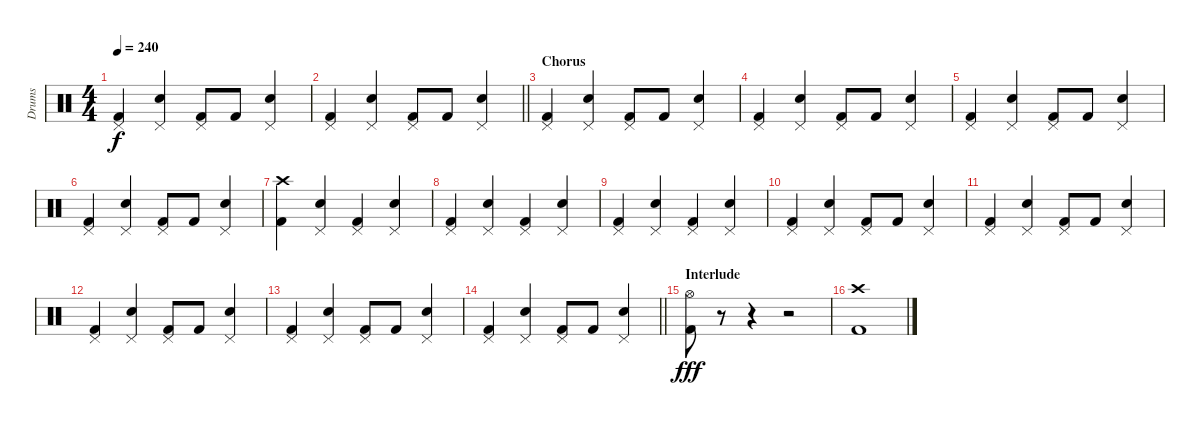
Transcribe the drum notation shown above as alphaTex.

\track ("Drums" "Drums") {instrument percussion}
\staff {score}
\articulation defaults
\ts (4 4)
\tempo 240
\clef neutral
\ks c
("Pedal Hi-Hat (hit)" "Kick (hit) 2").4{dy f} ("Pedal Hi-Hat (hit)" "Snare (hit) 2").4 ("Pedal Hi-Hat (hit)" "Kick (hit) 2").8 "Kick (hit) 2".8 ("Pedal Hi-Hat (hit)" "Snare (hit) 2").4 |
\barLineRight lightlight
("Pedal Hi-Hat (hit)" "Kick (hit) 2").4 ("Pedal Hi-Hat (hit)" "Snare (hit) 2").4 ("Pedal Hi-Hat (hit)" "Kick (hit) 2").8 "Kick (hit) 2".8 ("Pedal Hi-Hat (hit)" "Snare (hit) 2").4 |
\section ("" "Chorus")
("Pedal Hi-Hat (hit)" "Kick (hit) 2").4 ("Pedal Hi-Hat (hit)" "Snare (hit) 2").4 ("Pedal Hi-Hat (hit)" "Kick (hit) 2").8 "Kick (hit) 2".8 ("Pedal Hi-Hat (hit)" "Snare (hit) 2").4 |
("Pedal Hi-Hat (hit)" "Kick (hit) 2").4 ("Pedal Hi-Hat (hit)" "Snare (hit) 2").4 ("Pedal Hi-Hat (hit)" "Kick (hit) 2").8 "Kick (hit) 2".8 ("Pedal Hi-Hat (hit)" "Snare (hit) 2").4 |
("Pedal Hi-Hat (hit)" "Kick (hit) 2").4 ("Pedal Hi-Hat (hit)" "Snare (hit) 2").4 ("Pedal Hi-Hat (hit)" "Kick (hit) 2").8 "Kick (hit) 2".8 ("Pedal Hi-Hat (hit)" "Snare (hit) 2").4 |
("Pedal Hi-Hat (hit)" "Kick (hit) 2").4 ("Pedal Hi-Hat (hit)" "Snare (hit) 2").4 ("Pedal Hi-Hat (hit)" "Kick (hit) 2").8 "Kick (hit) 2".8 ("Pedal Hi-Hat (hit)" "Snare (hit) 2").4 |
("Crash high (hit)" "Kick (hit) 2").4 ("Pedal Hi-Hat (hit)" "Snare (hit) 2").4 ("Pedal Hi-Hat (hit)" "Kick (hit) 2").4 ("Pedal Hi-Hat (hit)" "Snare (hit) 2").4 |
("Pedal Hi-Hat (hit)" "Kick (hit) 2").4 ("Pedal Hi-Hat (hit)" "Snare (hit) 2").4 ("Pedal Hi-Hat (hit)" "Kick (hit) 2").4 ("Pedal Hi-Hat (hit)" "Snare (hit) 2").4 |
("Pedal Hi-Hat (hit)" "Kick (hit) 2").4 ("Pedal Hi-Hat (hit)" "Snare (hit) 2").4 ("Pedal Hi-Hat (hit)" "Kick (hit) 2").4 ("Pedal Hi-Hat (hit)" "Snare (hit) 2").4 |
("Pedal Hi-Hat (hit)" "Kick (hit) 2").4 ("Pedal Hi-Hat (hit)" "Snare (hit) 2").4 ("Pedal Hi-Hat (hit)" "Kick (hit) 2").8 "Kick (hit) 2".8 ("Pedal Hi-Hat (hit)" "Snare (hit) 2").4 |
("Pedal Hi-Hat (hit)" "Kick (hit) 2").4 ("Pedal Hi-Hat (hit)" "Snare (hit) 2").4 ("Pedal Hi-Hat (hit)" "Kick (hit) 2").8 "Kick (hit) 2".8 ("Pedal Hi-Hat (hit)" "Snare (hit) 2").4 |
("Pedal Hi-Hat (hit)" "Kick (hit) 2").4 ("Pedal Hi-Hat (hit)" "Snare (hit) 2").4 ("Pedal Hi-Hat (hit)" "Kick (hit) 2").8 "Kick (hit) 2".8 ("Pedal Hi-Hat (hit)" "Snare (hit) 2").4 |
("Pedal Hi-Hat (hit)" "Kick (hit) 2").4 ("Pedal Hi-Hat (hit)" "Snare (hit) 2").4 ("Pedal Hi-Hat (hit)" "Kick (hit) 2").8 "Kick (hit) 2".8 ("Pedal Hi-Hat (hit)" "Snare (hit) 2").4 |
\barLineRight lightlight
("Pedal Hi-Hat (hit)" "Kick (hit) 2").4 ("Pedal Hi-Hat (hit)" "Snare (hit) 2").4 ("Pedal Hi-Hat (hit)" "Kick (hit) 2").8 "Kick (hit) 2".8 ("Pedal Hi-Hat (hit)" "Snare (hit) 2").4 |
\section ("" "Interlude")
("Hi-Hat (open)" "Kick (hit) 2").8{dy fff} r.8 r.4 r.2 |
("Crash high (hit)" "Kick (hit) 2").1
